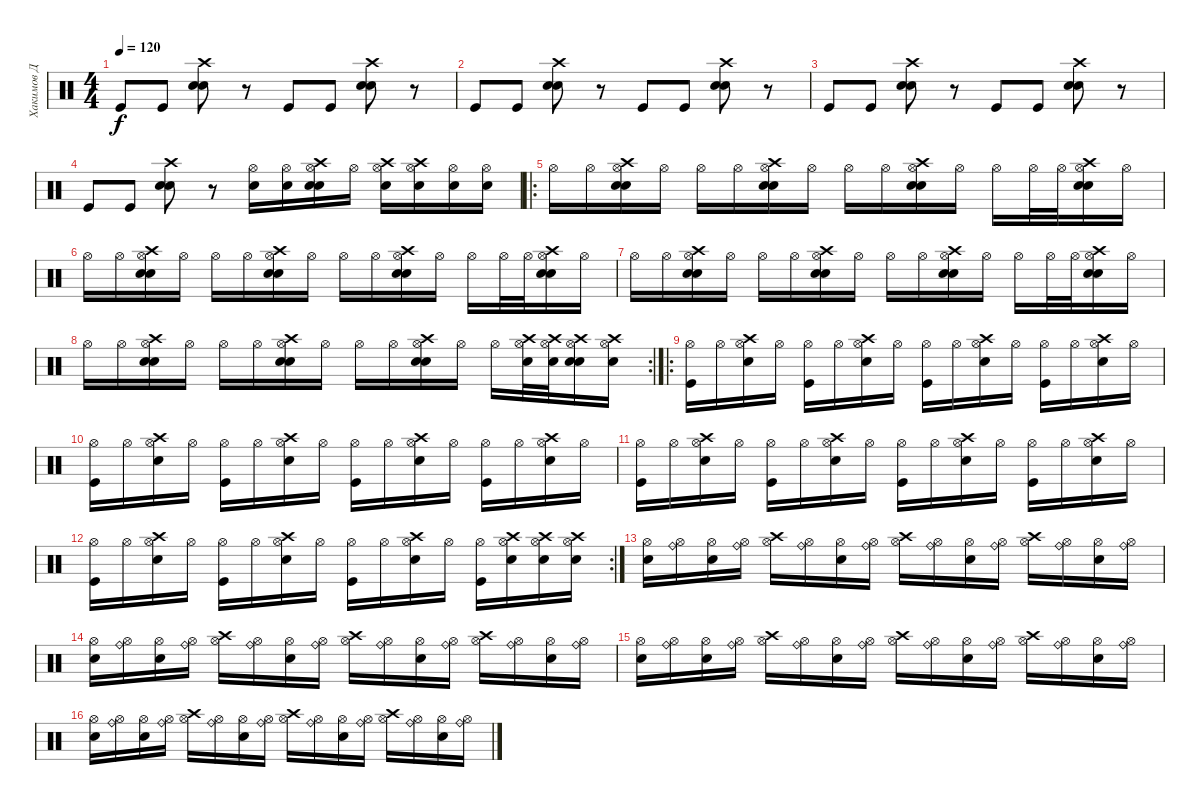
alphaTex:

\track ("Хакимов Д" "Хакимов Д") {instrument percussion}
\staff {score}
\articulation defaults
\ts (4 4)
\tempo 120
\clef neutral
\ks c "Kick (hit)".8{dy f} "Kick (hit)".8
("Electric Snare (hit)" "Snare (hit) 2" "Crash high (hit)").8 r.8 "Kick (hit)".8 "Kick (hit)".8 ("Electric Snare (hit)" "Snare (hit) 2" "Crash high (hit)").8 r.8 |
"Kick (hit)".8 "Kick (hit)".8 ("Electric Snare (hit)" "Snare (hit) 2" "Crash high (hit)").8 r.8 "Kick (hit)".8 "Kick (hit)".8 ("Electric Snare (hit)" "Snare (hit) 2" "Crash high (hit)").8 r.8 |
"Kick (hit)".8 "Kick (hit)".8 ("Electric Snare (hit)" "Snare (hit) 2" "Crash high (hit)").8 r.8 "Kick (hit)".8 "Kick (hit)".8 ("Electric Snare (hit)" "Snare (hit) 2" "Crash high (hit)").8 r.8 |
"Kick (hit)".8 "Kick (hit)".8 ("Electric Snare (hit)" "Snare (hit) 2" "Crash high (hit)").8 r.8 ("Snare (hit) 2" "Hi-Hat (open)").16 ("Snare (hit) 2" "Hi-Hat (open)").16 ("Electric Snare (hit)" "Snare (hit) 2" "Crash high (hit)" "Hi-Hat (open)").16 "Hi-Hat (open)".16 ("Crash high (hit)" "Electric Snare (hit)" "Hi-Hat (open)").16 ("Snare (hit) 2" "Crash high (hit)" "Hi-Hat (open)").16 ("Snare (hit) 2" "Hi-Hat (open)").16 ("Snare (hit) 2" "Hi-Hat (open)").16 |
\ro "Hi-Hat (open)".16 "Hi-Hat (open)".16
("Crash high (hit)" "Snare (hit) 2" "Electric Snare (hit)" "Hi-Hat (open)").16 "Hi-Hat (open)".16 "Hi-Hat (open)".16 "Hi-Hat (open)".16 ("Crash high (hit)" "Snare (hit) 2" "Electric Snare (hit)" "Hi-Hat (open)").16 "Hi-Hat (open)".16 "Hi-Hat (open)".16 "Hi-Hat (open)".16 ("Crash high (hit)" "Electric Snare (hit)" "Snare (hit) 2" "Hi-Hat (open)").16 "Hi-Hat (open)".16 "Hi-Hat (open)".16 "Hi-Hat (open)".32 "Hi-Hat (open)".32 ("Crash high (hit)" "Snare (hit) 2" "Electric Snare (hit)" "Hi-Hat (open)").16 "Hi-Hat (open)".16 |
"Hi-Hat (open)".16 "Hi-Hat (open)".16 ("Crash high (hit)" "Snare (hit) 2" "Electric Snare (hit)" "Hi-Hat (open)").16 "Hi-Hat (open)".16 "Hi-Hat (open)".16 "Hi-Hat (open)".16 ("Crash high (hit)" "Snare (hit) 2" "Electric Snare (hit)" "Hi-Hat (open)").16 "Hi-Hat (open)".16 "Hi-Hat (open)".16 "Hi-Hat (open)".16 ("Crash high (hit)" "Electric Snare (hit)" "Snare (hit) 2" "Hi-Hat (open)").16 "Hi-Hat (open)".16 "Hi-Hat (open)".16 "Hi-Hat (open)".32 "Hi-Hat (open)".32 ("Crash high (hit)" "Snare (hit) 2" "Electric Snare (hit)" "Hi-Hat (open)").16 "Hi-Hat (open)".16 |
"Hi-Hat (open)".16 "Hi-Hat (open)".16 ("Crash high (hit)" "Snare (hit) 2" "Electric Snare (hit)" "Hi-Hat (open)").16 "Hi-Hat (open)".16 "Hi-Hat (open)".16 "Hi-Hat (open)".16 ("Crash high (hit)" "Snare (hit) 2" "Electric Snare (hit)" "Hi-Hat (open)").16 "Hi-Hat (open)".16 "Hi-Hat (open)".16 "Hi-Hat (open)".16 ("Crash high (hit)" "Electric Snare (hit)" "Snare (hit) 2" "Hi-Hat (open)").16 "Hi-Hat (open)".16 "Hi-Hat (open)".16 "Hi-Hat (open)".32 "Hi-Hat (open)".32 ("Crash high (hit)" "Snare (hit) 2" "Electric Snare (hit)" "Hi-Hat (open)").16 "Hi-Hat (open)".16 |
\rc 2 "Hi-Hat (open)".16 "Hi-Hat (open)".16
("Crash high (hit)" "Snare (hit) 2" "Electric Snare (hit)" "Hi-Hat (open)").16 "Hi-Hat (open)".16 "Hi-Hat (open)".16 "Hi-Hat (open)".16 ("Crash high (hit)" "Snare (hit) 2" "Electric Snare (hit)" "Hi-Hat (open)").16 "Hi-Hat (open)".16 "Hi-Hat (open)".16 "Hi-Hat (open)".16 ("Crash high (hit)" "Electric Snare (hit)" "Snare (hit) 2" "Hi-Hat (open)").16 "Hi-Hat (open)".16 "Hi-Hat (open)".16 ("Snare (hit) 2" "Crash high (hit)" "Hi-Hat (open)").32 ("Snare (hit) 2" "Crash high (hit)" "Hi-Hat (open)").32 ("Crash high (hit)" "Snare (hit) 2" "Electric Snare (hit)" "Hi-Hat (open)").16 ("Snare (hit) 2" "Crash high (hit)" "Hi-Hat (open)").16 |
\ro
("Hi-Hat (open)" "Kick (hit)").16 "Hi-Hat (open)".16 ("Hi-Hat (open)" "Electric Snare (hit)" "Crash high (hit)").16 "Hi-Hat (open)".16 ("Hi-Hat (open)" "Kick (hit)").16 "Hi-Hat (open)".16 ("Hi-Hat (open)" "Electric Snare (hit)" "Crash high (hit)").16 "Hi-Hat (open)".16 ("Hi-Hat (open)" "Kick (hit)").16 "Hi-Hat (open)".16 ("Hi-Hat (open)" "Electric Snare (hit)" "Crash high (hit)").16 "Hi-Hat (open)".16 ("Hi-Hat (open)" "Kick (hit)").16 "Hi-Hat (open)".16 ("Hi-Hat (open)" "Electric Snare (hit)" "Crash high (hit)").16 "Hi-Hat (open)".16 |
("Hi-Hat (open)" "Kick (hit)").16 "Hi-Hat (open)".16 ("Hi-Hat (open)" "Electric Snare (hit)" "Crash high (hit)").16 "Hi-Hat (open)".16 ("Hi-Hat (open)" "Kick (hit)").16 "Hi-Hat (open)".16 ("Hi-Hat (open)" "Electric Snare (hit)" "Crash high (hit)").16 "Hi-Hat (open)".16 ("Hi-Hat (open)" "Kick (hit)").16 "Hi-Hat (open)".16 ("Hi-Hat (open)" "Electric Snare (hit)" "Crash high (hit)").16 "Hi-Hat (open)".16 ("Hi-Hat (open)" "Kick (hit)").16 "Hi-Hat (open)".16 ("Hi-Hat (open)" "Electric Snare (hit)" "Crash high (hit)").16 "Hi-Hat (open)".16 |
("Hi-Hat (open)" "Kick (hit)").16 "Hi-Hat (open)".16 ("Hi-Hat (open)" "Electric Snare (hit)" "Crash high (hit)").16 "Hi-Hat (open)".16 ("Hi-Hat (open)" "Kick (hit)").16 "Hi-Hat (open)".16 ("Hi-Hat (open)" "Electric Snare (hit)" "Crash high (hit)").16 "Hi-Hat (open)".16 ("Hi-Hat (open)" "Kick (hit)").16 "Hi-Hat (open)".16 ("Hi-Hat (open)" "Electric Snare (hit)" "Crash high (hit)").16 "Hi-Hat (open)".16 ("Hi-Hat (open)" "Kick (hit)").16 "Hi-Hat (open)".16 ("Hi-Hat (open)" "Electric Snare (hit)" "Crash high (hit)").16 "Hi-Hat (open)".16 |
\rc 2
("Hi-Hat (open)" "Kick (hit)").16 "Hi-Hat (open)".16 ("Hi-Hat (open)" "Electric Snare (hit)" "Crash high (hit)").16 "Hi-Hat (open)".16 ("Hi-Hat (open)" "Kick (hit)").16 "Hi-Hat (open)".16 ("Hi-Hat (open)" "Electric Snare (hit)" "Crash high (hit)").16 "Hi-Hat (open)".16 ("Hi-Hat (open)" "Kick (hit)").16 "Hi-Hat (open)".16 ("Hi-Hat (open)" "Electric Snare (hit)" "Crash high (hit)").16 "Hi-Hat (open)".16 ("Hi-Hat (open)" "Kick (hit)").16 ("Hi-Hat (open)" "Snare (hit) 2" "Crash high (hit)").16 ("Hi-Hat (open)" "Electric Snare (hit)" "Crash high (hit)").16 ("Hi-Hat (open)" "Snare (hit) 2" "Crash high (hit)").16 |
("Hi-Hat (open)" "Snare (hit) 2").16 ("Hi-Hat (open)" "Ride (bell)").16 ("Hi-Hat (open)" "Snare (hit) 2").16 ("Hi-Hat (open)" "Ride (bell)").16 ("Hi-Hat (open)" "Crash high (hit)").16 ("Hi-Hat (open)" "Ride (bell)").16 ("Hi-Hat (open)" "Snare (hit) 2").16 ("Hi-Hat (open)" "Ride (bell)").16 ("Hi-Hat (open)" "Crash high (hit)").16 ("Hi-Hat (open)" "Ride (bell)").16 ("Hi-Hat (open)" "Snare (hit) 2").16 ("Hi-Hat (open)" "Ride (bell)").16 ("Hi-Hat (open)" "Crash high (hit)").16 ("Hi-Hat (open)" "Ride (bell)").16 ("Hi-Hat (open)" "Snare (hit) 2").16 ("Hi-Hat (open)" "Ride (bell)").16 |
("Hi-Hat (open)" "Snare (hit) 2").16 ("Hi-Hat (open)" "Ride (bell)").16 ("Hi-Hat (open)" "Snare (hit) 2").16 ("Hi-Hat (open)" "Ride (bell)").16 ("Hi-Hat (open)" "Crash high (hit)").16 ("Hi-Hat (open)" "Ride (bell)").16 ("Hi-Hat (open)" "Snare (hit) 2").16 ("Hi-Hat (open)" "Ride (bell)").16 ("Hi-Hat (open)" "Crash high (hit)").16 ("Hi-Hat (open)" "Ride (bell)").16 ("Hi-Hat (open)" "Snare (hit) 2").16 ("Hi-Hat (open)" "Ride (bell)").16 ("Hi-Hat (open)" "Crash high (hit)").16 ("Hi-Hat (open)" "Ride (bell)").16 ("Hi-Hat (open)" "Snare (hit) 2").16 ("Hi-Hat (open)" "Ride (bell)").16 |
("Hi-Hat (open)" "Snare (hit) 2").16 ("Hi-Hat (open)" "Ride (bell)").16 ("Hi-Hat (open)" "Snare (hit) 2").16 ("Hi-Hat (open)" "Ride (bell)").16 ("Hi-Hat (open)" "Crash high (hit)").16 ("Hi-Hat (open)" "Ride (bell)").16 ("Hi-Hat (open)" "Snare (hit) 2").16 ("Hi-Hat (open)" "Ride (bell)").16 ("Hi-Hat (open)" "Crash high (hit)").16 ("Hi-Hat (open)" "Ride (bell)").16 ("Hi-Hat (open)" "Snare (hit) 2").16 ("Hi-Hat (open)" "Ride (bell)").16 ("Hi-Hat (open)" "Crash high (hit)").16 ("Hi-Hat (open)" "Ride (bell)").16 ("Hi-Hat (open)" "Snare (hit) 2").16 ("Hi-Hat (open)" "Ride (bell)").16 |
("Hi-Hat (open)" "Snare (hit) 2").16 ("Hi-Hat (open)" "Ride (bell)").16 ("Hi-Hat (open)" "Snare (hit) 2").16 ("Hi-Hat (open)" "Ride (bell)").16 ("Hi-Hat (open)" "Crash high (hit)").16 ("Hi-Hat (open)" "Ride (bell)").16 ("Hi-Hat (open)" "Snare (hit) 2").16 ("Hi-Hat (open)" "Ride (bell)").16 ("Hi-Hat (open)" "Crash high (hit)").16 ("Hi-Hat (open)" "Ride (bell)").16 ("Hi-Hat (open)" "Snare (hit) 2").16 ("Hi-Hat (open)" "Ride (bell)").16 ("Hi-Hat (open)" "Crash high (hit)").16 ("Hi-Hat (open)" "Ride (bell)").16 ("Hi-Hat (open)" "Snare (hit) 2").16 ("Hi-Hat (open)" "Ride (bell)").16
